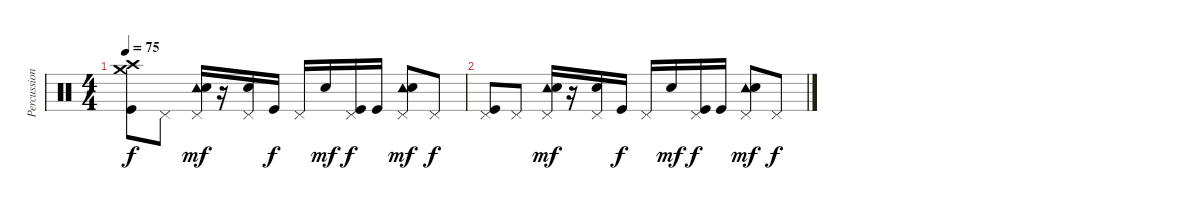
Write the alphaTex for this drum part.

\track ("Percussions" "Percussion") {instrument percussion}
\staff {score}
\articulation defaults
\ts (4 4)
\tempo 75
\clef neutral
\ks c
("Crash medium (hit)" "Crash high (hit)" "Kick (hit)").8{dy f} "Pedal Hi-Hat (hit)".8 ("Pedal Hi-Hat (hit)" "Tambourine (hit)" "Electric Snare (hit)").16{dy mf} r.16 ("Pedal Hi-Hat (hit)" "Electric Snare (hit)").16 "Kick (hit)".16{dy f} "Pedal Hi-Hat (hit)".16 "Electric Snare (hit)".16{dy mf} ("Pedal Hi-Hat (hit)" "Kick (hit)").16{dy f} "Kick (hit)".16 ("Pedal Hi-Hat (hit)" "Tambourine (hit)" "Electric Snare (hit)").8{dy mf} "Pedal Hi-Hat (hit)".8{dy f} |
("Pedal Hi-Hat (hit)" "Kick (hit)").8 "Pedal Hi-Hat (hit)".8 ("Pedal Hi-Hat (hit)" "Tambourine (hit)" "Electric Snare (hit)").16{dy mf} r.16 ("Pedal Hi-Hat (hit)" "Electric Snare (hit)").16 "Kick (hit)".16{dy f} "Pedal Hi-Hat (hit)".16 "Electric Snare (hit)".16{dy mf} ("Pedal Hi-Hat (hit)" "Kick (hit)").16{dy f} "Kick (hit)".16 ("Pedal Hi-Hat (hit)" "Tambourine (hit)" "Electric Snare (hit)").8{dy mf} "Pedal Hi-Hat (hit)".8{dy f}
